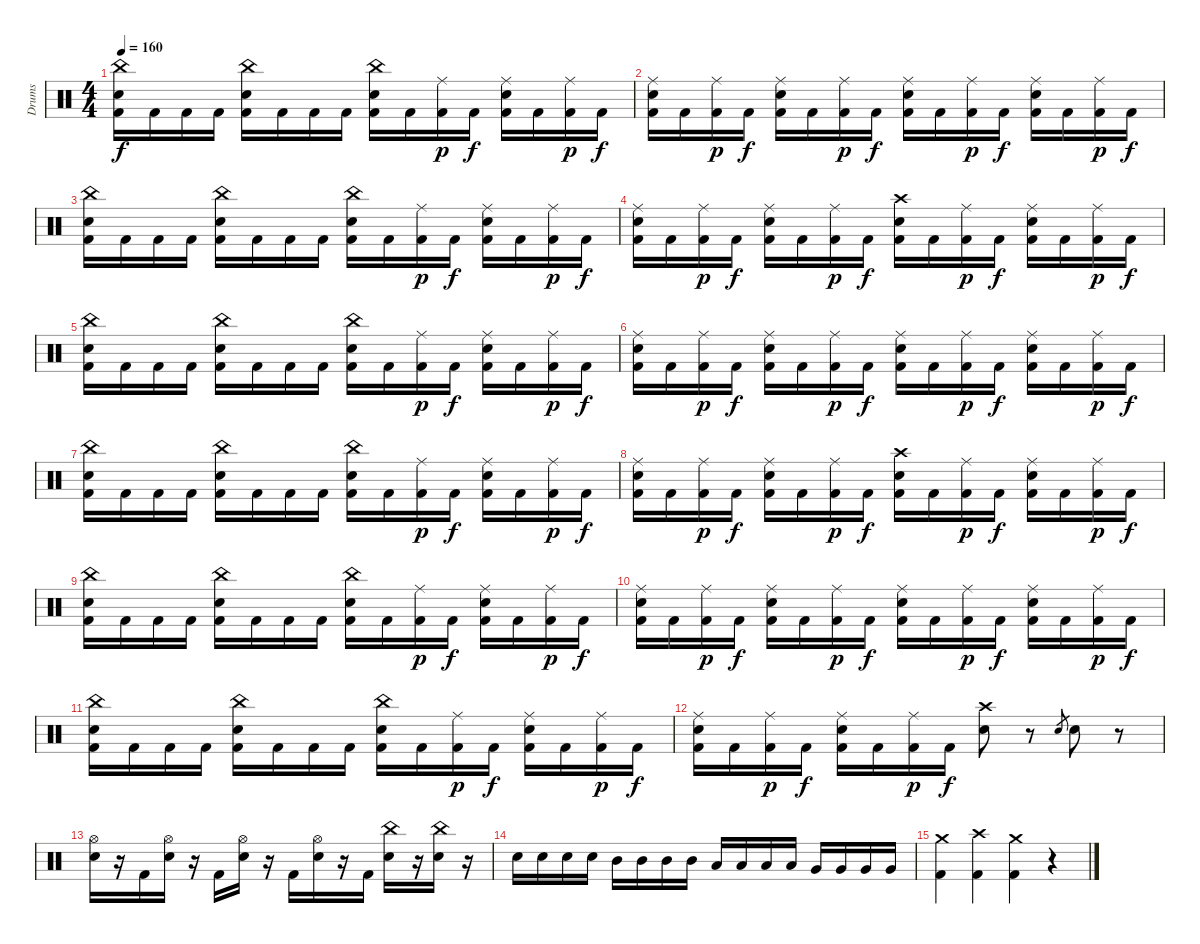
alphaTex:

\track ("Drums" "Drums") {instrument percussion}
\staff {score}
\articulation defaults
\ts (4 4)
\tempo 160
\clef neutral
\ks c
("China (hit)" "Snare (hit) 2" "Kick (hit) 2").16{dy f} "Kick (hit) 2".16 "Kick (hit) 2".16 "Kick (hit) 2".16 ("China (hit)" "Snare (hit) 2" "Kick (hit) 2").16 "Kick (hit) 2".16 "Kick (hit) 2".16 "Kick (hit) 2".16 ("China (hit)" "Snare (hit) 2" "Kick (hit) 2").16 "Kick (hit) 2".16 ("Ride (middle)" "Kick (hit) 2").16{dy p} "Kick (hit) 2".16{dy f} ("Ride (middle)" "Snare (hit) 2" "Kick (hit) 2").16 "Kick (hit) 2".16 ("Ride (middle)" "Kick (hit) 2").16{dy p} "Kick (hit) 2".16{dy f} |
("Ride (middle)" "Snare (hit) 2" "Kick (hit) 2").16 "Kick (hit) 2".16 ("Ride (middle)" "Kick (hit) 2").16{dy p} "Kick (hit) 2".16{dy f} ("Ride (middle)" "Snare (hit) 2" "Kick (hit) 2").16 "Kick (hit) 2".16 ("Ride (middle)" "Kick (hit) 2").16{dy p} "Kick (hit) 2".16{dy f} ("Ride (middle)" "Snare (hit) 2" "Kick (hit) 2").16 "Kick (hit) 2".16 ("Ride (middle)" "Kick (hit) 2").16{dy p} "Kick (hit) 2".16{dy f} ("Ride (middle)" "Snare (hit) 2" "Kick (hit) 2").16 "Kick (hit) 2".16 ("Ride (middle)" "Kick (hit) 2").16{dy p} "Kick (hit) 2".16{dy f} |
("China (hit)" "Snare (hit) 2" "Kick (hit) 2").16 "Kick (hit) 2".16 "Kick (hit) 2".16 "Kick (hit) 2".16 ("China (hit)" "Snare (hit) 2" "Kick (hit) 2").16 "Kick (hit) 2".16 "Kick (hit) 2".16 "Kick (hit) 2".16 ("China (hit)" "Snare (hit) 2" "Kick (hit) 2").16 "Kick (hit) 2".16 ("Ride (middle)" "Kick (hit) 2").16{dy p} "Kick (hit) 2".16{dy f} ("Ride (middle)" "Snare (hit) 2" "Kick (hit) 2").16 "Kick (hit) 2".16 ("Ride (middle)" "Kick (hit) 2").16{dy p} "Kick (hit) 2".16{dy f} |
("Ride (middle)" "Snare (hit) 2" "Kick (hit) 2").16 "Kick (hit) 2".16 ("Ride (middle)" "Kick (hit) 2").16{dy p} "Kick (hit) 2".16{dy f} ("Ride (middle)" "Snare (hit) 2" "Kick (hit) 2").16 "Kick (hit) 2".16 ("Ride (middle)" "Kick (hit) 2").16{dy p} "Kick (hit) 2".16{dy f} ("Crash high (hit)" "Snare (hit) 2" "Kick (hit) 2").16 "Kick (hit) 2".16 ("Ride (middle)" "Kick (hit) 2").16{dy p} "Kick (hit) 2".16{dy f} ("Ride (middle)" "Snare (hit) 2" "Kick (hit) 2").16 "Kick (hit) 2".16 ("Ride (middle)" "Kick (hit) 2").16{dy p} "Kick (hit) 2".16{dy f} |
("China (hit)" "Snare (hit) 2" "Kick (hit) 2").16 "Kick (hit) 2".16 "Kick (hit) 2".16 "Kick (hit) 2".16 ("China (hit)" "Snare (hit) 2" "Kick (hit) 2").16 "Kick (hit) 2".16 "Kick (hit) 2".16 "Kick (hit) 2".16 ("China (hit)" "Snare (hit) 2" "Kick (hit) 2").16 "Kick (hit) 2".16 ("Ride (middle)" "Kick (hit) 2").16{dy p} "Kick (hit) 2".16{dy f} ("Ride (middle)" "Snare (hit) 2" "Kick (hit) 2").16 "Kick (hit) 2".16 ("Ride (middle)" "Kick (hit) 2").16{dy p} "Kick (hit) 2".16{dy f} |
("Ride (middle)" "Snare (hit) 2" "Kick (hit) 2").16 "Kick (hit) 2".16 ("Ride (middle)" "Kick (hit) 2").16{dy p} "Kick (hit) 2".16{dy f} ("Ride (middle)" "Snare (hit) 2" "Kick (hit) 2").16 "Kick (hit) 2".16 ("Ride (middle)" "Kick (hit) 2").16{dy p} "Kick (hit) 2".16{dy f} ("Ride (middle)" "Snare (hit) 2" "Kick (hit) 2").16 "Kick (hit) 2".16 ("Ride (middle)" "Kick (hit) 2").16{dy p} "Kick (hit) 2".16{dy f} ("Ride (middle)" "Snare (hit) 2" "Kick (hit) 2").16 "Kick (hit) 2".16 ("Ride (middle)" "Kick (hit) 2").16{dy p} "Kick (hit) 2".16{dy f} |
("China (hit)" "Snare (hit) 2" "Kick (hit) 2").16 "Kick (hit) 2".16 "Kick (hit) 2".16 "Kick (hit) 2".16 ("China (hit)" "Snare (hit) 2" "Kick (hit) 2").16 "Kick (hit) 2".16 "Kick (hit) 2".16 "Kick (hit) 2".16 ("China (hit)" "Snare (hit) 2" "Kick (hit) 2").16 "Kick (hit) 2".16 ("Ride (middle)" "Kick (hit) 2").16{dy p} "Kick (hit) 2".16{dy f} ("Ride (middle)" "Snare (hit) 2" "Kick (hit) 2").16 "Kick (hit) 2".16 ("Ride (middle)" "Kick (hit) 2").16{dy p} "Kick (hit) 2".16{dy f} |
("Ride (middle)" "Snare (hit) 2" "Kick (hit) 2").16 "Kick (hit) 2".16 ("Ride (middle)" "Kick (hit) 2").16{dy p} "Kick (hit) 2".16{dy f} ("Ride (middle)" "Snare (hit) 2" "Kick (hit) 2").16 "Kick (hit) 2".16 ("Ride (middle)" "Kick (hit) 2").16{dy p} "Kick (hit) 2".16{dy f} ("Crash high (hit)" "Snare (hit) 2" "Kick (hit) 2").16 "Kick (hit) 2".16 ("Ride (middle)" "Kick (hit) 2").16{dy p} "Kick (hit) 2".16{dy f} ("Ride (middle)" "Snare (hit) 2" "Kick (hit) 2").16 "Kick (hit) 2".16 ("Ride (middle)" "Kick (hit) 2").16{dy p} "Kick (hit) 2".16{dy f} |
("China (hit)" "Snare (hit) 2" "Kick (hit) 2").16 "Kick (hit) 2".16 "Kick (hit) 2".16 "Kick (hit) 2".16 ("China (hit)" "Snare (hit) 2" "Kick (hit) 2").16 "Kick (hit) 2".16 "Kick (hit) 2".16 "Kick (hit) 2".16 ("China (hit)" "Snare (hit) 2" "Kick (hit) 2").16 "Kick (hit) 2".16 ("Ride (middle)" "Kick (hit) 2").16{dy p} "Kick (hit) 2".16{dy f} ("Ride (middle)" "Snare (hit) 2" "Kick (hit) 2").16 "Kick (hit) 2".16 ("Ride (middle)" "Kick (hit) 2").16{dy p} "Kick (hit) 2".16{dy f} |
("Ride (middle)" "Snare (hit) 2" "Kick (hit) 2").16 "Kick (hit) 2".16 ("Ride (middle)" "Kick (hit) 2").16{dy p} "Kick (hit) 2".16{dy f} ("Ride (middle)" "Snare (hit) 2" "Kick (hit) 2").16 "Kick (hit) 2".16 ("Ride (middle)" "Kick (hit) 2").16{dy p} "Kick (hit) 2".16{dy f} ("Ride (middle)" "Snare (hit) 2" "Kick (hit) 2").16 "Kick (hit) 2".16 ("Ride (middle)" "Kick (hit) 2").16{dy p} "Kick (hit) 2".16{dy f} ("Ride (middle)" "Snare (hit) 2" "Kick (hit) 2").16 "Kick (hit) 2".16 ("Ride (middle)" "Kick (hit) 2").16{dy p} "Kick (hit) 2".16{dy f} |
("China (hit)" "Snare (hit) 2" "Kick (hit) 2").16 "Kick (hit) 2".16 "Kick (hit) 2".16 "Kick (hit) 2".16 ("China (hit)" "Snare (hit) 2" "Kick (hit) 2").16 "Kick (hit) 2".16 "Kick (hit) 2".16 "Kick (hit) 2".16 ("China (hit)" "Snare (hit) 2" "Kick (hit) 2").16 "Kick (hit) 2".16 ("Ride (middle)" "Kick (hit) 2").16{dy p} "Kick (hit) 2".16{dy f} ("Ride (middle)" "Snare (hit) 2" "Kick (hit) 2").16 "Kick (hit) 2".16 ("Ride (middle)" "Kick (hit) 2").16{dy p} "Kick (hit) 2".16{dy f} |
("Ride (middle)" "Snare (hit) 2" "Kick (hit) 2").16 "Kick (hit) 2".16 ("Ride (middle)" "Kick (hit) 2").16{dy p} "Kick (hit) 2".16{dy f} ("Ride (middle)" "Snare (hit) 2" "Kick (hit) 2").16 "Kick (hit) 2".16 ("Ride (middle)" "Kick (hit) 2").16{dy p} "Kick (hit) 2".16{dy f} ("Crash high (hit)" "Snare (hit) 2").8 r.8 "Snare (hit) 2".8{gr} "Snare (hit) 2".8 r.8 |
("Hi-Hat (open)" "Snare (hit) 2").16 r.16 "Kick (hit) 2".16 ("Hi-Hat (open)" "Snare (hit) 2").16 r.16 "Kick (hit) 2".16 ("Hi-Hat (open)" "Snare (hit) 2").16 r.16 "Kick (hit) 2".16 ("Hi-Hat (open)" "Snare (hit) 2").16 r.16 "Kick (hit) 2".16 ("China (hit)" "Snare (hit) 2").16 r.16 ("China (hit)" "Snare (hit) 2").16 r.16 |
"Snare (hit) 2".16 "Snare (hit) 2".16 "Snare (hit) 2".16 "Snare (hit) 2".16 "Mid Tom (hit)".16 "Mid Tom (hit)".16 "Mid Tom (hit)".16 "Mid Tom (hit)".16 "Low Tom (hit)".16 "Low Tom (hit)".16 "Low Tom (hit)".16 "Low Tom (hit)".16 "Very Low Tom (hit)".16 "Very Low Tom (hit)".16 "Very Low Tom (hit)".16 "Very Low Tom (hit)".16 |
("Crash medium (hit)" "Kick (hit) 2").4 ("Crash high (hit)" "Kick (hit) 2").4 ("Crash medium (hit)" "Kick (hit) 2").4 r.4
